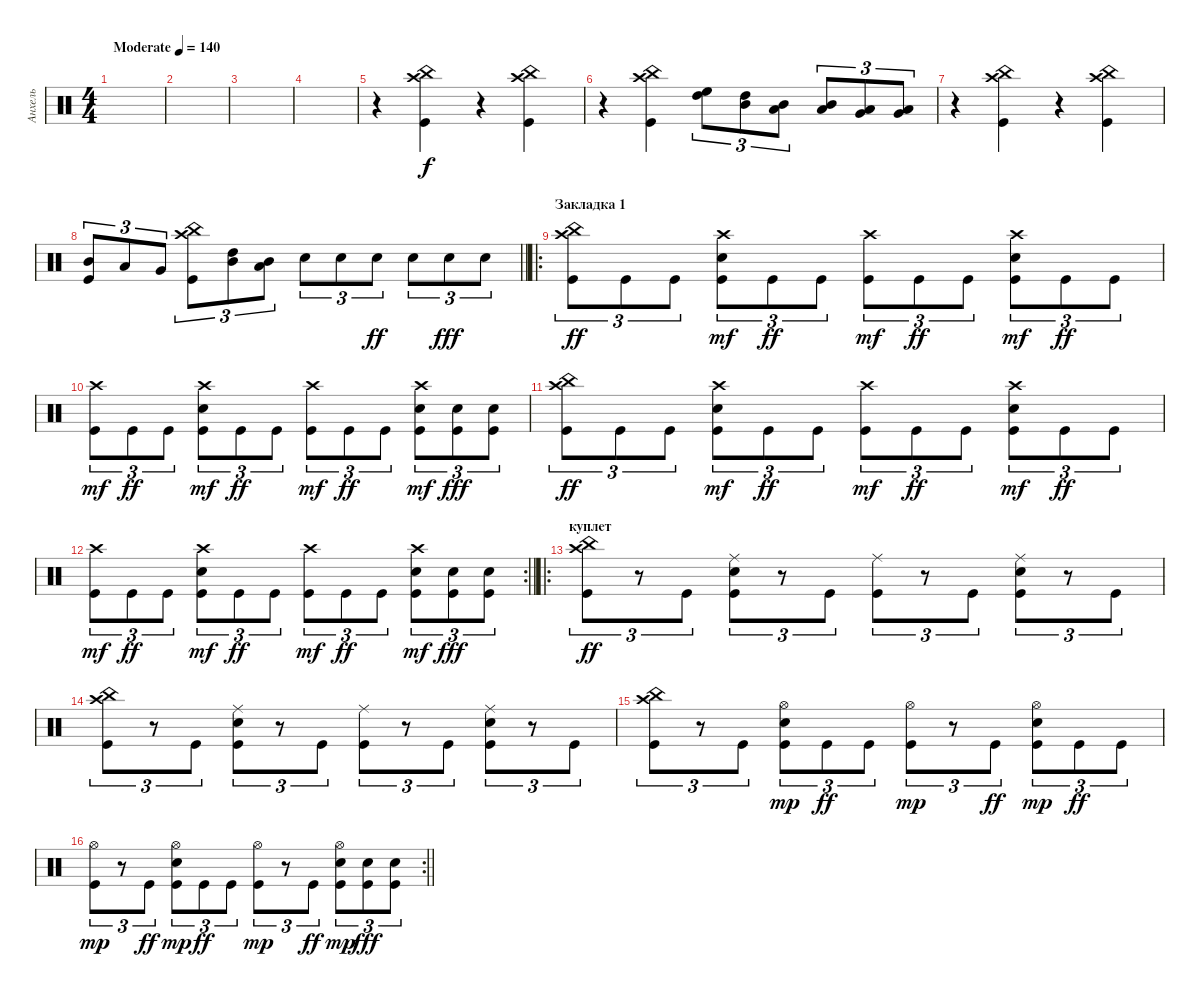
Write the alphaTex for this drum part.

\track ("Анхель" "Анхель") {instrument percussion}
\staff {score}
\articulation defaults
\ts (4 4)
\tempo (140 "Moderate")
\clef neutral
\ks c
|
|
|
|
r.4 ("Crash high (hit)" "Kick (hit)" "China (hit)").4 r.4 ("Crash high (hit)" "Kick (hit)" "China (hit)").4 |
r.4 ("Crash high (hit)" "Kick (hit)" "China (hit)").4 ("High Tom (hit)" "High Floor Tom (hit)").8{tu (3 2)} ("Mid Tom (hit)" "High Tom (hit)").8{tu (3 2)} ("Low Tom (hit)" "Mid Tom (hit)").8{tu (3 2)} ("Low Tom (hit)" "Mid Tom (hit)").8{tu (3 2)} ("Very Low Tom (hit)" "Low Tom (hit)").8{tu (3 2)} ("Low Floor Tom (hit)" "Very Low Tom (hit)").8{tu (3 2)} |
r.4 ("Crash high (hit)" "Kick (hit)" "China (hit)").4 r.4 ("Crash high (hit)" "Kick (hit)" "China (hit)").4 |
\barLineRight lightlight
("Kick (hit)" "Mid Tom (hit)").8{tu (3 2)} "Low Tom (hit)".8{tu (3 2)} "Very Low Tom (hit)".8{tu (3 2)} ("Kick (hit)" "China (hit)" "Crash high (hit)").8{tu (3 2)} ("High Tom (hit)" "Mid Tom (hit)").8{tu (3 2)} ("Mid Tom (hit)" "Low Tom (hit)").8{tu (3 2)} "Snare (hit) 2".8{tu (3 2) dy f} "Snare (hit) 2".8{tu (3 2)} "Snare (hit) 2".8{tu (3 2) dy ff} "Snare (hit) 2".8{tu (3 2)} "Snare (hit) 2".8{tu (3 2) dy fff} "Snare (hit) 2".8{tu (3 2)} |
\ro
\section ("" "Закладка 1")
("Kick (hit)" "China (hit)" "Crash high (hit)").8{tu (3 2) dy ff} "Kick (hit)".8{tu (3 2)} "Kick (hit)".8{tu (3 2)} ("Kick (hit)" "Snare (hit) 2" "Crash high (hit)").8{tu (3 2) dy mf} "Kick (hit)".8{tu (3 2) dy ff} "Kick (hit)".8{tu (3 2)} ("Kick (hit)" "Crash high (hit)").8{tu (3 2) dy mf} "Kick (hit)".8{tu (3 2) dy ff} "Kick (hit)".8{tu (3 2)} ("Kick (hit)" "Snare (hit) 2" "Crash high (hit)").8{tu (3 2) dy mf} "Kick (hit)".8{tu (3 2) dy ff} "Kick (hit)".8{tu (3 2)} |
("Kick (hit)" "Crash high (hit)").8{tu (3 2) dy mf} "Kick (hit)".8{tu (3 2) dy ff} "Kick (hit)".8{tu (3 2)} ("Kick (hit)" "Snare (hit) 2" "Crash high (hit)").8{tu (3 2) dy mf} "Kick (hit)".8{tu (3 2) dy ff} "Kick (hit)".8{tu (3 2)} ("Kick (hit)" "Crash high (hit)").8{tu (3 2) dy mf} "Kick (hit)".8{tu (3 2) dy ff} "Kick (hit)".8{tu (3 2)} ("Kick (hit)" "Snare (hit) 2" "Crash high (hit)").8{tu (3 2) dy mf} ("Kick (hit)" "Snare (hit) 2").8{tu (3 2) dy fff} ("Kick (hit)" "Snare (hit) 2").8{tu (3 2)} |
("Kick (hit)" "China (hit)" "Crash high (hit)").8{tu (3 2) dy ff} "Kick (hit)".8{tu (3 2)} "Kick (hit)".8{tu (3 2)} ("Kick (hit)" "Snare (hit) 2" "Crash high (hit)").8{tu (3 2) dy mf} "Kick (hit)".8{tu (3 2) dy ff} "Kick (hit)".8{tu (3 2)} ("Kick (hit)" "Crash high (hit)").8{tu (3 2) dy mf} "Kick (hit)".8{tu (3 2) dy ff} "Kick (hit)".8{tu (3 2)} ("Kick (hit)" "Snare (hit) 2" "Crash high (hit)").8{tu (3 2) dy mf} "Kick (hit)".8{tu (3 2) dy ff} "Kick (hit)".8{tu (3 2)} |
\rc 2
\barLineRight lightlight
("Kick (hit)" "Crash high (hit)").8{tu (3 2) dy mf} "Kick (hit)".8{tu (3 2) dy ff} "Kick (hit)".8{tu (3 2)} ("Kick (hit)" "Snare (hit) 2" "Crash high (hit)").8{tu (3 2) dy mf} "Kick (hit)".8{tu (3 2) dy ff} "Kick (hit)".8{tu (3 2)} ("Kick (hit)" "Crash high (hit)").8{tu (3 2) dy mf} "Kick (hit)".8{tu (3 2) dy ff} "Kick (hit)".8{tu (3 2)} ("Kick (hit)" "Snare (hit) 2" "Crash high (hit)").8{tu (3 2) dy mf} ("Kick (hit)" "Snare (hit) 2").8{tu (3 2) dy fff} ("Kick (hit)" "Snare (hit) 2").8{tu (3 2)} |
\ro
\section ("" "куплет")
("Kick (hit)" "China (hit)" "Crash high (hit)").8{tu (3 2) dy ff} r.8{tu (3 2)} "Kick (hit)".8{tu (3 2)} ("Kick (hit)" "Snare (hit) 2" "Ride (middle)").8{tu (3 2)} r.8{tu (3 2)} "Kick (hit)".8{tu (3 2)} ("Kick (hit)" "Ride (middle)").8{tu (3 2)} r.8{tu (3 2)} "Kick (hit)".8{tu (3 2)} ("Kick (hit)" "Snare (hit) 2" "Ride (middle)").8{tu (3 2)} r.8{tu (3 2)} "Kick (hit)".8{tu (3 2)} |
("Kick (hit)" "China (hit)" "Crash high (hit)").8{tu (3 2)} r.8{tu (3 2)} "Kick (hit)".8{tu (3 2)} ("Kick (hit)" "Snare (hit) 2" "Ride (middle)").8{tu (3 2)} r.8{tu (3 2)} "Kick (hit)".8{tu (3 2)} ("Kick (hit)" "Ride (middle)").8{tu (3 2)} r.8{tu (3 2)} "Kick (hit)".8{tu (3 2)} ("Kick (hit)" "Snare (hit) 2" "Ride (middle)").8{tu (3 2)} r.8{tu (3 2)} "Kick (hit)".8{tu (3 2)} |
("Kick (hit)" "China (hit)" "Crash high (hit)").8{tu (3 2)} r.8{tu (3 2)} "Kick (hit)".8{tu (3 2)} ("Kick (hit)" "Snare (hit) 2" "Hi-Hat (open)").8{tu (3 2) dy mp} "Kick (hit)".8{tu (3 2) dy ff} "Kick (hit)".8{tu (3 2)} ("Kick (hit)" "Hi-Hat (open)").8{tu (3 2) dy mp} r.8{tu (3 2)} "Kick (hit)".8{tu (3 2) dy ff} ("Kick (hit)" "Snare (hit) 2" "Hi-Hat (open)").8{tu (3 2) dy mp} "Kick (hit)".8{tu (3 2) dy ff} "Kick (hit)".8{tu (3 2)} |
\rc 2
\barLineRight lightlight
("Kick (hit)" "Hi-Hat (open)").8{tu (3 2) dy mp} r.8{tu (3 2)} "Kick (hit)".8{tu (3 2) dy ff} ("Kick (hit)" "Snare (hit) 2" "Hi-Hat (open)").8{tu (3 2) dy mp} "Kick (hit)".8{tu (3 2) dy ff} "Kick (hit)".8{tu (3 2)} ("Kick (hit)" "Hi-Hat (open)").8{tu (3 2) dy mp} r.8{tu (3 2)} "Kick (hit)".8{tu (3 2) dy ff} ("Kick (hit)" "Snare (hit) 2" "Hi-Hat (open)").8{tu (3 2) dy mp} ("Kick (hit)" "Snare (hit) 2").8{tu (3 2) dy fff} ("Kick (hit)" "Snare (hit) 2").8{tu (3 2)}
